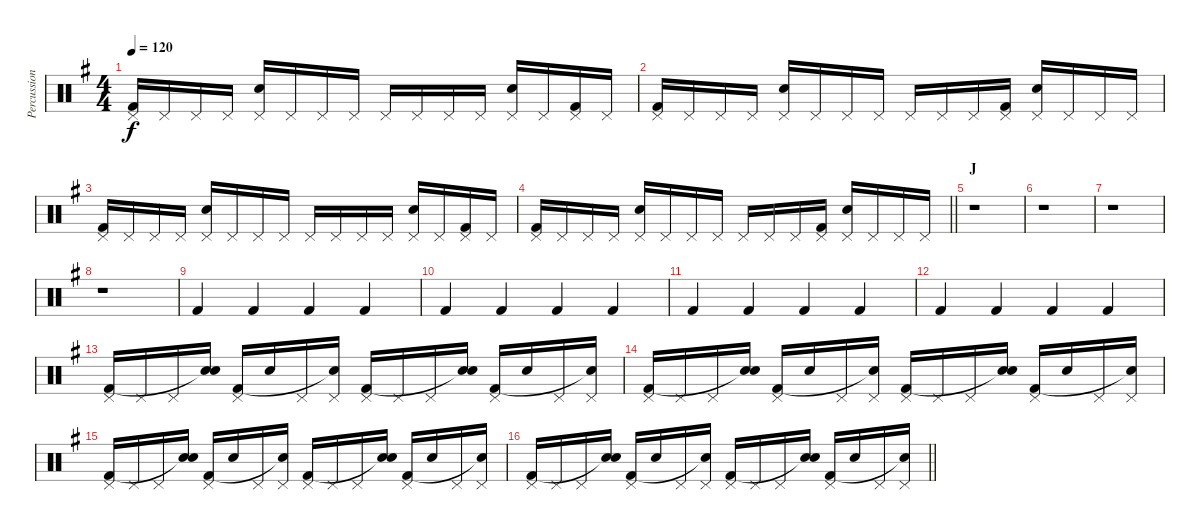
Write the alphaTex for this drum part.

\track ("Percussion" "Percussion") {instrument percussion}
\staff {score}
\articulation defaults
\ts (4 4)
\tempo 120
\clef neutral
\ks g
("Pedal Hi-Hat (hit)" "Kick (hit) 2").16{dy f} "Pedal Hi-Hat (hit)".16 "Pedal Hi-Hat (hit)".16 "Pedal Hi-Hat (hit)".16 ("Pedal Hi-Hat (hit)" "Electric Snare (hit)").16 "Pedal Hi-Hat (hit)".16 "Pedal Hi-Hat (hit)".16 "Pedal Hi-Hat (hit)".16 "Pedal Hi-Hat (hit)".16 "Pedal Hi-Hat (hit)".16 "Pedal Hi-Hat (hit)".16 "Pedal Hi-Hat (hit)".16 ("Pedal Hi-Hat (hit)" "Electric Snare (hit)").16 "Pedal Hi-Hat (hit)".16 ("Pedal Hi-Hat (hit)" "Kick (hit) 2").16 "Pedal Hi-Hat (hit)".16 |
("Pedal Hi-Hat (hit)" "Kick (hit) 2").16 "Pedal Hi-Hat (hit)".16 "Pedal Hi-Hat (hit)".16 "Pedal Hi-Hat (hit)".16 ("Pedal Hi-Hat (hit)" "Electric Snare (hit)").16 "Pedal Hi-Hat (hit)".16 "Pedal Hi-Hat (hit)".16 "Pedal Hi-Hat (hit)".16 "Pedal Hi-Hat (hit)".16 "Pedal Hi-Hat (hit)".16 "Pedal Hi-Hat (hit)".16 ("Pedal Hi-Hat (hit)" "Kick (hit) 2").16 ("Pedal Hi-Hat (hit)" "Electric Snare (hit)").16 "Pedal Hi-Hat (hit)".16 "Pedal Hi-Hat (hit)".16 "Pedal Hi-Hat (hit)".16 |
("Pedal Hi-Hat (hit)" "Kick (hit) 2").16 "Pedal Hi-Hat (hit)".16 "Pedal Hi-Hat (hit)".16 "Pedal Hi-Hat (hit)".16 ("Pedal Hi-Hat (hit)" "Electric Snare (hit)").16 "Pedal Hi-Hat (hit)".16 "Pedal Hi-Hat (hit)".16 "Pedal Hi-Hat (hit)".16 "Pedal Hi-Hat (hit)".16 "Pedal Hi-Hat (hit)".16 "Pedal Hi-Hat (hit)".16 "Pedal Hi-Hat (hit)".16 ("Pedal Hi-Hat (hit)" "Electric Snare (hit)").16 "Pedal Hi-Hat (hit)".16 ("Pedal Hi-Hat (hit)" "Kick (hit) 2").16 "Pedal Hi-Hat (hit)".16 |
\barLineRight lightlight
("Pedal Hi-Hat (hit)" "Kick (hit) 2").16 "Pedal Hi-Hat (hit)".16 "Pedal Hi-Hat (hit)".16 "Pedal Hi-Hat (hit)".16 ("Pedal Hi-Hat (hit)" "Electric Snare (hit)").16 "Pedal Hi-Hat (hit)".16 "Pedal Hi-Hat (hit)".16 "Pedal Hi-Hat (hit)".16 "Pedal Hi-Hat (hit)".16 "Pedal Hi-Hat (hit)".16 "Pedal Hi-Hat (hit)".16 ("Pedal Hi-Hat (hit)" "Kick (hit) 2").16 ("Pedal Hi-Hat (hit)" "Electric Snare (hit)").16 "Pedal Hi-Hat (hit)".16 "Pedal Hi-Hat (hit)".16 "Pedal Hi-Hat (hit)".16 |
\section ("" "J")
r.1 |
r.1 |
r.1 |
r.1 |
"Kick (hit) 2".4 "Kick (hit) 2".4 "Kick (hit) 2".4 "Kick (hit) 2".4 |
"Kick (hit) 2".4 "Kick (hit) 2".4 "Kick (hit) 2".4 "Kick (hit) 2".4 |
"Kick (hit) 2".4 "Kick (hit) 2".4 "Kick (hit) 2".4 "Kick (hit) 2".4 |
"Kick (hit) 2".4 "Kick (hit) 2".4 "Kick (hit) 2".4 "Kick (hit) 2".4 |
("Pedal Hi-Hat (hit)" "Kick (hit) 2").16 "Pedal Hi-Hat (hit)".16 "Pedal Hi-Hat (hit)".16 ("Electric Snare (hit)" "Snare (hit)"{t}).16 ("Pedal Hi-Hat (hit)" "Kick (hit) 2").16 "Electric Snare (hit)".16 "Pedal Hi-Hat (hit)".16 ("Pedal Hi-Hat (hit)" "Snare (hit)"{t}).16 ("Pedal Hi-Hat (hit)" "Kick (hit) 2").16 "Pedal Hi-Hat (hit)".16 "Pedal Hi-Hat (hit)".16 ("Electric Snare (hit)" "Snare (hit)"{t}).16 ("Pedal Hi-Hat (hit)" "Kick (hit) 2").16 "Electric Snare (hit)".16 "Pedal Hi-Hat (hit)".16 ("Pedal Hi-Hat (hit)" "Snare (hit)"{t}).16 |
("Pedal Hi-Hat (hit)" "Kick (hit) 2").16 "Pedal Hi-Hat (hit)".16 "Pedal Hi-Hat (hit)".16 ("Electric Snare (hit)" "Snare (hit)"{t}).16 ("Pedal Hi-Hat (hit)" "Kick (hit) 2").16 "Electric Snare (hit)".16 "Pedal Hi-Hat (hit)".16 ("Pedal Hi-Hat (hit)" "Snare (hit)"{t}).16 ("Pedal Hi-Hat (hit)" "Kick (hit) 2").16 "Pedal Hi-Hat (hit)".16 "Pedal Hi-Hat (hit)".16 ("Electric Snare (hit)" "Snare (hit)"{t}).16 ("Pedal Hi-Hat (hit)" "Kick (hit) 2").16 "Electric Snare (hit)".16 "Pedal Hi-Hat (hit)".16 ("Pedal Hi-Hat (hit)" "Snare (hit)"{t}).16 |
("Pedal Hi-Hat (hit)" "Kick (hit) 2").16 "Pedal Hi-Hat (hit)".16 "Pedal Hi-Hat (hit)".16 ("Electric Snare (hit)" "Snare (hit)"{t}).16 ("Pedal Hi-Hat (hit)" "Kick (hit) 2").16 "Electric Snare (hit)".16 "Pedal Hi-Hat (hit)".16 ("Pedal Hi-Hat (hit)" "Snare (hit)"{t}).16 ("Pedal Hi-Hat (hit)" "Kick (hit) 2").16 "Pedal Hi-Hat (hit)".16 "Pedal Hi-Hat (hit)".16 ("Electric Snare (hit)" "Snare (hit)"{t}).16 ("Pedal Hi-Hat (hit)" "Kick (hit) 2").16 "Electric Snare (hit)".16 "Pedal Hi-Hat (hit)".16 ("Pedal Hi-Hat (hit)" "Snare (hit)"{t}).16 |
\barLineRight lightlight
("Pedal Hi-Hat (hit)" "Kick (hit) 2").16 "Pedal Hi-Hat (hit)".16 "Pedal Hi-Hat (hit)".16 ("Electric Snare (hit)" "Snare (hit)"{t}).16 ("Pedal Hi-Hat (hit)" "Kick (hit) 2").16 "Electric Snare (hit)".16 "Pedal Hi-Hat (hit)".16 ("Pedal Hi-Hat (hit)" "Snare (hit)"{t}).16 ("Pedal Hi-Hat (hit)" "Kick (hit) 2").16 "Pedal Hi-Hat (hit)".16 "Pedal Hi-Hat (hit)".16 ("Electric Snare (hit)" "Snare (hit)"{t}).16 ("Pedal Hi-Hat (hit)" "Kick (hit) 2").16 "Electric Snare (hit)".16 "Pedal Hi-Hat (hit)".16 ("Pedal Hi-Hat (hit)" "Snare (hit)"{t}).16
